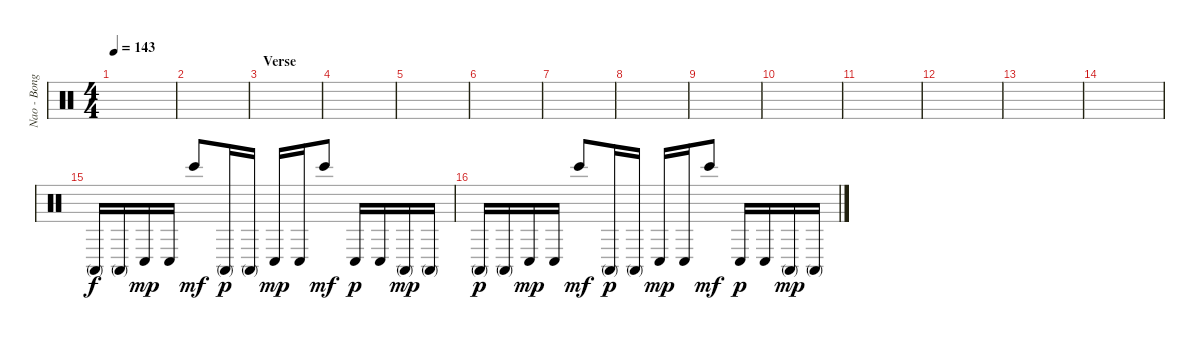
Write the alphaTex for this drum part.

\track ("Nao - Bongos" "Nao - Bong") {instrument percussion}
\staff {score}
\articulation defaults
\ts (4 4)
\tempo 143
\clef neutral
\ks c
|
|
\section ("" "Verse")
|
|
|
|
|
|
|
|
|
|
|
|
"Conga high (mute)".16 "Conga high (mute)".16 "Conga low (hit)".16{dy mp} "Conga low (hit)".16 "Bongo High (hit)".8{dy mf} "Conga high (mute)".16{dy p} "Conga high (mute)".16 "Conga low (hit)".16{dy mp} "Conga low (hit)".16 "Bongo High (hit)".8{dy mf} "Conga low (hit)".16{dy p} "Conga low (hit)".16 "Conga high (mute)".16{dy mp} "Conga high (mute)".16 |
"Conga high (mute)".16{dy p} "Conga high (mute)".16 "Conga low (hit)".16{dy mp} "Conga low (hit)".16 "Bongo High (hit)".8{dy mf} "Conga high (mute)".16{dy p} "Conga high (mute)".16 "Conga low (hit)".16{dy mp} "Conga low (hit)".16 "Bongo High (hit)".8{dy mf} "Conga low (hit)".16{dy p} "Conga low (hit)".16 "Conga high (mute)".16{dy mp} "Conga high (mute)".16
